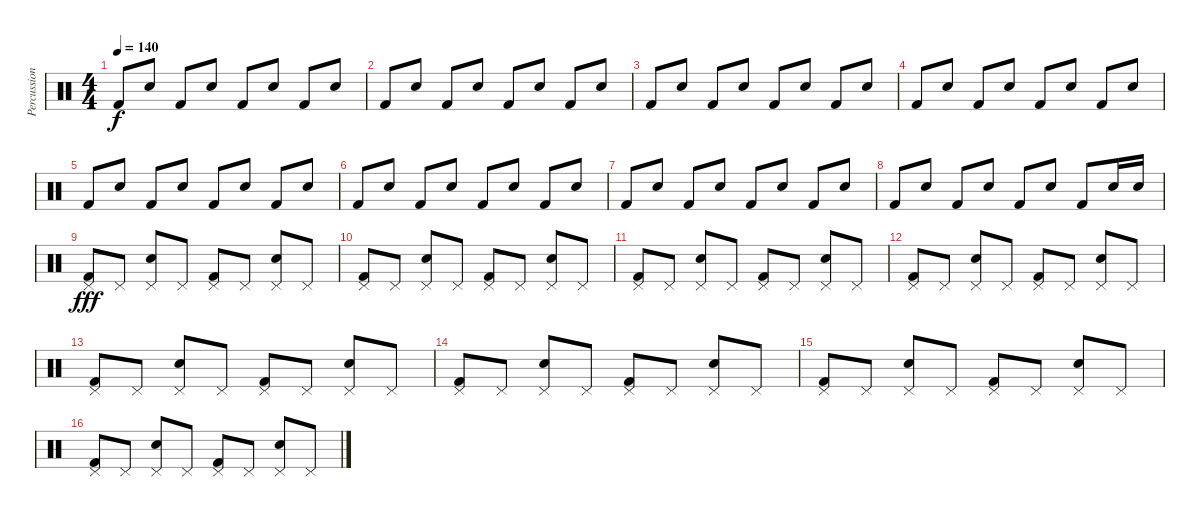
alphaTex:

\track ("Percussions" "Percussion") {instrument percussion}
\staff {score}
\articulation defaults
\ts (4 4)
\tempo 140
\clef neutral
\ks c "Kick (hit) 2".8{dy f} "Electric Snare (hit)".8 "Kick (hit) 2".8 "Electric Snare (hit)".8 "Kick (hit) 2".8 "Electric Snare (hit)".8 "Kick (hit) 2".8 "Electric Snare (hit)".8
|
"Kick (hit) 2".8 "Electric Snare (hit)".8 "Kick (hit) 2".8 "Electric Snare (hit)".8 "Kick (hit) 2".8 "Electric Snare (hit)".8 "Kick (hit) 2".8 "Electric Snare (hit)".8 |
"Kick (hit) 2".8 "Electric Snare (hit)".8 "Kick (hit) 2".8 "Electric Snare (hit)".8 "Kick (hit) 2".8 "Electric Snare (hit)".8 "Kick (hit) 2".8 "Electric Snare (hit)".8 |
"Kick (hit) 2".8 "Electric Snare (hit)".8 "Kick (hit) 2".8 "Electric Snare (hit)".8 "Kick (hit) 2".8 "Electric Snare (hit)".8 "Kick (hit) 2".8 "Electric Snare (hit)".8 |
"Kick (hit) 2".8 "Electric Snare (hit)".8 "Kick (hit) 2".8 "Electric Snare (hit)".8 "Kick (hit) 2".8 "Electric Snare (hit)".8 "Kick (hit) 2".8 "Electric Snare (hit)".8 |
"Kick (hit) 2".8 "Electric Snare (hit)".8 "Kick (hit) 2".8 "Electric Snare (hit)".8 "Kick (hit) 2".8 "Electric Snare (hit)".8 "Kick (hit) 2".8 "Electric Snare (hit)".8 |
"Kick (hit) 2".8 "Electric Snare (hit)".8 "Kick (hit) 2".8 "Electric Snare (hit)".8 "Kick (hit) 2".8 "Electric Snare (hit)".8 "Kick (hit) 2".8 "Electric Snare (hit)".8 |
"Kick (hit) 2".8 "Electric Snare (hit)".8 "Kick (hit) 2".8 "Electric Snare (hit)".8 "Kick (hit) 2".8 "Electric Snare (hit)".8 "Kick (hit) 2".8 "Electric Snare (hit)".16 "Electric Snare (hit)".16 |
("Pedal Hi-Hat (hit)" "Kick (hit) 2").8{dy fff} "Pedal Hi-Hat (hit)".8 ("Pedal Hi-Hat (hit)" "Electric Snare (hit)").8 "Pedal Hi-Hat (hit)".8 ("Pedal Hi-Hat (hit)" "Kick (hit) 2").8 "Pedal Hi-Hat (hit)".8 ("Pedal Hi-Hat (hit)" "Electric Snare (hit)").8 "Pedal Hi-Hat (hit)".8 |
("Pedal Hi-Hat (hit)" "Kick (hit) 2").8 "Pedal Hi-Hat (hit)".8 ("Pedal Hi-Hat (hit)" "Electric Snare (hit)").8 "Pedal Hi-Hat (hit)".8 ("Pedal Hi-Hat (hit)" "Kick (hit) 2").8 "Pedal Hi-Hat (hit)".8 ("Pedal Hi-Hat (hit)" "Electric Snare (hit)").8 "Pedal Hi-Hat (hit)".8 |
("Pedal Hi-Hat (hit)" "Kick (hit) 2").8 "Pedal Hi-Hat (hit)".8 ("Pedal Hi-Hat (hit)" "Electric Snare (hit)").8 "Pedal Hi-Hat (hit)".8 ("Pedal Hi-Hat (hit)" "Kick (hit) 2").8 "Pedal Hi-Hat (hit)".8 ("Pedal Hi-Hat (hit)" "Electric Snare (hit)").8 "Pedal Hi-Hat (hit)".8 |
("Pedal Hi-Hat (hit)" "Kick (hit) 2").8 "Pedal Hi-Hat (hit)".8 ("Pedal Hi-Hat (hit)" "Electric Snare (hit)").8 "Pedal Hi-Hat (hit)".8 ("Pedal Hi-Hat (hit)" "Kick (hit) 2").8 "Pedal Hi-Hat (hit)".8 ("Pedal Hi-Hat (hit)" "Electric Snare (hit)").8 "Pedal Hi-Hat (hit)".8 |
("Pedal Hi-Hat (hit)" "Kick (hit) 2").8 "Pedal Hi-Hat (hit)".8 ("Pedal Hi-Hat (hit)" "Electric Snare (hit)").8 "Pedal Hi-Hat (hit)".8 ("Pedal Hi-Hat (hit)" "Kick (hit) 2").8 "Pedal Hi-Hat (hit)".8 ("Pedal Hi-Hat (hit)" "Electric Snare (hit)").8 "Pedal Hi-Hat (hit)".8 |
("Pedal Hi-Hat (hit)" "Kick (hit) 2").8 "Pedal Hi-Hat (hit)".8 ("Pedal Hi-Hat (hit)" "Electric Snare (hit)").8 "Pedal Hi-Hat (hit)".8 ("Pedal Hi-Hat (hit)" "Kick (hit) 2").8 "Pedal Hi-Hat (hit)".8 ("Pedal Hi-Hat (hit)" "Electric Snare (hit)").8 "Pedal Hi-Hat (hit)".8 |
("Pedal Hi-Hat (hit)" "Kick (hit) 2").8 "Pedal Hi-Hat (hit)".8 ("Pedal Hi-Hat (hit)" "Electric Snare (hit)").8 "Pedal Hi-Hat (hit)".8 ("Pedal Hi-Hat (hit)" "Kick (hit) 2").8 "Pedal Hi-Hat (hit)".8 ("Pedal Hi-Hat (hit)" "Electric Snare (hit)").8 "Pedal Hi-Hat (hit)".8 |
("Pedal Hi-Hat (hit)" "Kick (hit) 2").8 "Pedal Hi-Hat (hit)".8 ("Pedal Hi-Hat (hit)" "Electric Snare (hit)").8 "Pedal Hi-Hat (hit)".8 ("Pedal Hi-Hat (hit)" "Kick (hit) 2").8 "Pedal Hi-Hat (hit)".8 ("Pedal Hi-Hat (hit)" "Electric Snare (hit)").8 "Pedal Hi-Hat (hit)".8
